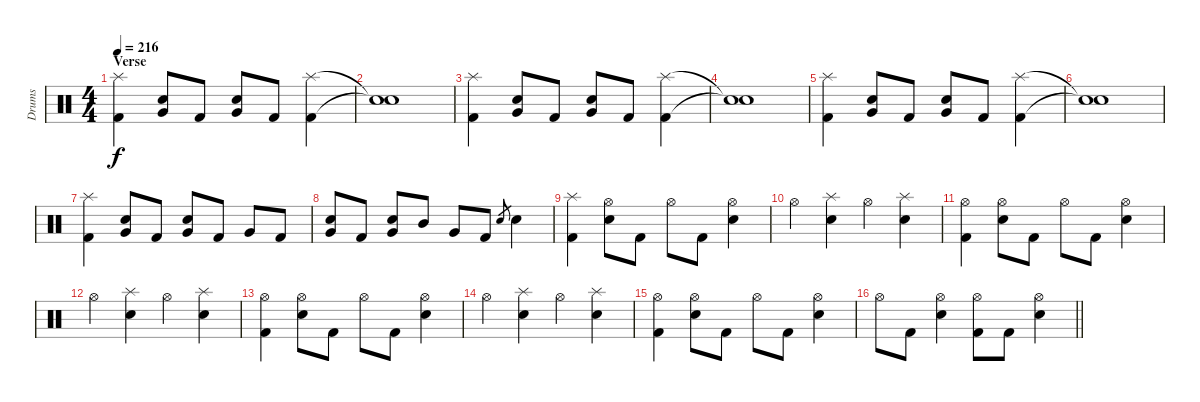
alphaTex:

\track ("Drums" "Drums") {instrument percussion}
\staff {score}
\articulation defaults
\ts (4 4)
\section ("" "Verse")
\tempo 216
\clef neutral
\ks c
("Splash (hit)" "Kick (hit) 2").4{dy f} ("Very Low Tom (hit)" "Electric Snare (hit)").8 "Kick (hit) 2".8 ("Very Low Tom (hit)" "Electric Snare (hit)").8 "Kick (hit) 2".8 ("Splash (hit)" "Kick (hit) 2").4 |
("Snare (hit)"{t} "Snare (hit)"{t}).1 |
("Splash (hit)" "Kick (hit) 2").4 ("Very Low Tom (hit)" "Electric Snare (hit)").8 "Kick (hit) 2".8 ("Very Low Tom (hit)" "Electric Snare (hit)").8 "Kick (hit) 2".8 ("Splash (hit)" "Kick (hit) 2").4 |
("Snare (hit)"{t} "Snare (hit)"{t}).1 |
("Splash (hit)" "Kick (hit) 2").4 ("Very Low Tom (hit)" "Electric Snare (hit)").8 "Kick (hit) 2".8 ("Very Low Tom (hit)" "Electric Snare (hit)").8 "Kick (hit) 2".8 ("Splash (hit)" "Kick (hit) 2").4 |
("Snare (hit)"{t} "Snare (hit)"{t}).1 |
("Splash (hit)" "Kick (hit) 2").4 ("Very Low Tom (hit)" "Electric Snare (hit)").8 "Kick (hit) 2".8 ("Very Low Tom (hit)" "Electric Snare (hit)").8 "Kick (hit) 2".8 "Very Low Tom (hit)".8 "Kick (hit) 2".8 |
("Very Low Tom (hit)" "Electric Snare (hit)").8 "Kick (hit) 2".8 ("Very Low Tom (hit)" "Electric Snare (hit)").8 "Mid Tom (hit)".8 "Very Low Tom (hit)".8 "Kick (hit) 2".8 "Electric Snare (hit)".8{gr} "Electric Snare (hit)".4 |
("Splash (hit)" "Kick (hit) 2").4 ("Hi-Hat (open)" "Electric Snare (hit)").8 "Kick (hit) 2".8 "Hi-Hat (open)".8 "Kick (hit) 2".8 ("Hi-Hat (open)" "Electric Snare (hit)").4 |
"Hi-Hat (open)".4 ("Splash (hit)" "Electric Snare (hit)").4 "Hi-Hat (open)".4 ("Splash (hit)" "Electric Snare (hit)").4 |
("Hi-Hat (open)" "Kick (hit) 2").4 ("Hi-Hat (open)" "Electric Snare (hit)").8 "Kick (hit) 2".8 "Hi-Hat (open)".8 "Kick (hit) 2".8 ("Hi-Hat (open)" "Electric Snare (hit)").4 |
"Hi-Hat (open)".4 ("Splash (hit)" "Electric Snare (hit)").4 "Hi-Hat (open)".4 ("Splash (hit)" "Electric Snare (hit)").4 |
("Hi-Hat (open)" "Kick (hit) 2").4 ("Hi-Hat (open)" "Electric Snare (hit)").8 "Kick (hit) 2".8 "Hi-Hat (open)".8 "Kick (hit) 2".8 ("Hi-Hat (open)" "Electric Snare (hit)").4 |
"Hi-Hat (open)".4 ("Splash (hit)" "Electric Snare (hit)").4 "Hi-Hat (open)".4 ("Splash (hit)" "Electric Snare (hit)").4 |
("Hi-Hat (open)" "Kick (hit) 2").4 ("Hi-Hat (open)" "Electric Snare (hit)").8 "Kick (hit) 2".8 "Hi-Hat (open)".8 "Kick (hit) 2".8 ("Hi-Hat (open)" "Electric Snare (hit)").4 |
\barLineRight lightlight "Hi-Hat (open)".8 "Kick (hit) 2".8
("Hi-Hat (open)" "Electric Snare (hit)").4 ("Hi-Hat (open)" "Kick (hit) 2").8 "Kick (hit) 2".8 ("Hi-Hat (open)" "Electric Snare (hit)").4
